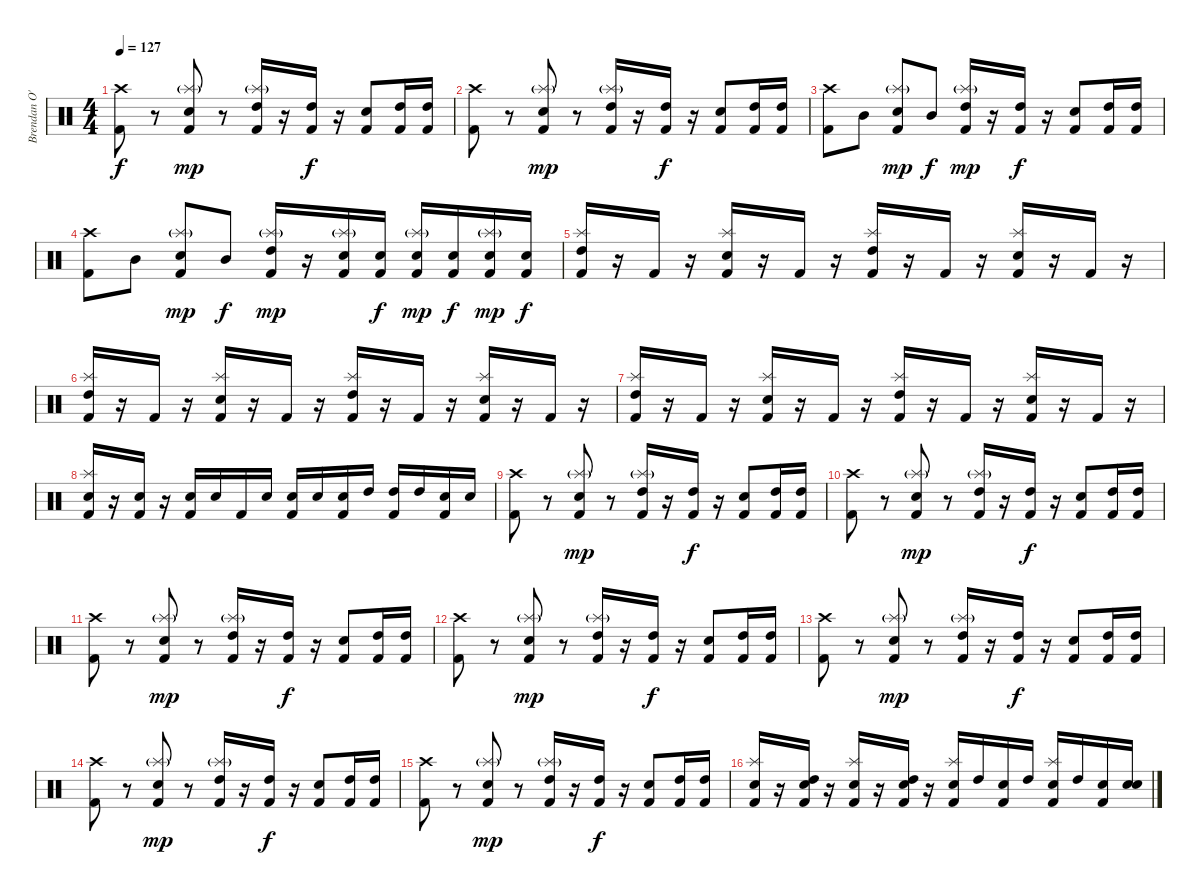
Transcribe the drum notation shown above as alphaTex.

\track ("Brendan O'Neil" "Brendan O'") {instrument percussion}
\staff {score}
\articulation defaults
\ts (4 4)
\tempo 127
\clef neutral
\ks c
("Crash high (hit)" "Kick (hit) 2").8{dy f} r.8 ("Splash (hit)"{g} "Snare (hit) 2" "Kick (hit) 2").8{dy mp} r.8 ("Splash (hit)"{g} "High Tom (hit)" "Kick (hit) 2").16 r.16 ("High Tom (hit)" "Kick (hit) 2").16{dy f} r.16 ("Snare (hit) 2" "Kick (hit) 2").8 ("High Tom (hit)" "Kick (hit) 2").16 ("High Tom (hit)" "Kick (hit) 2").16 |
("Crash high (hit)" "Kick (hit) 2").8 r.8 ("Splash (hit)"{g} "Snare (hit) 2" "Kick (hit) 2").8{dy mp} r.8 ("Splash (hit)"{g} "High Tom (hit)" "Kick (hit) 2").16 r.16 ("High Tom (hit)" "Kick (hit) 2").16{dy f} r.16 ("Snare (hit) 2" "Kick (hit) 2").8 ("High Tom (hit)" "Kick (hit) 2").16 ("High Tom (hit)" "Kick (hit) 2").16 |
("Crash high (hit)" "Kick (hit) 2").8 "Mid Tom (hit)".8 ("Splash (hit)"{g} "Snare (hit) 2" "Kick (hit) 2").8{dy mp} "Mid Tom (hit)".8{dy f} ("Splash (hit)"{g} "High Tom (hit)" "Kick (hit) 2").16{dy mp} r.16 ("High Tom (hit)" "Kick (hit) 2").16{dy f} r.16 ("Snare (hit) 2" "Kick (hit) 2").8 ("High Tom (hit)" "Kick (hit) 2").16 ("High Tom (hit)" "Kick (hit) 2").16 |
("Crash high (hit)" "Kick (hit) 2").8 "Mid Tom (hit)".8 ("Splash (hit)"{g} "Snare (hit) 2" "Kick (hit) 2").8{dy mp} "Mid Tom (hit)".8{dy f} ("Splash (hit)"{g} "High Tom (hit)" "Kick (hit) 2").16{dy mp} r.16 ("Splash (hit)"{g} "Snare (hit) 2" "Kick (hit) 2").16 ("Snare (hit) 2" "Kick (hit) 2").16{dy f} ("Splash (hit)"{g} "Snare (hit) 2" "Kick (hit) 2").16{dy mp} ("Snare (hit) 2" "Kick (hit) 2").16{dy f} ("Splash (hit)"{g} "Snare (hit) 2" "Kick (hit) 2").16{dy mp} ("Snare (hit) 2" "Kick (hit) 2").16{dy f} |
("Splash (hit)" "High Tom (hit)" "Kick (hit) 2").16 r.16 "Kick (hit) 2".16 r.16 ("Splash (hit)" "Snare (hit) 2" "Kick (hit) 2").16 r.16 "Kick (hit) 2".16 r.16 ("Splash (hit)" "High Tom (hit)" "Kick (hit) 2").16 r.16 "Kick (hit) 2".16 r.16 ("Splash (hit)" "Snare (hit) 2" "Kick (hit) 2").16 r.16 "Kick (hit) 2".16 r.16 |
("Splash (hit)" "High Tom (hit)" "Kick (hit) 2").16 r.16 "Kick (hit) 2".16 r.16 ("Splash (hit)" "Snare (hit) 2" "Kick (hit) 2").16 r.16 "Kick (hit) 2".16 r.16 ("Splash (hit)" "High Tom (hit)" "Kick (hit) 2").16 r.16 "Kick (hit) 2".16 r.16 ("Splash (hit)" "Snare (hit) 2" "Kick (hit) 2").16 r.16 "Kick (hit) 2".16 r.16 |
("Splash (hit)" "High Tom (hit)" "Kick (hit) 2").16 r.16 "Kick (hit) 2".16 r.16 ("Splash (hit)" "Snare (hit) 2" "Kick (hit) 2").16 r.16 "Kick (hit) 2".16 r.16 ("Splash (hit)" "High Tom (hit)" "Kick (hit) 2").16 r.16 "Kick (hit) 2".16 r.16 ("Splash (hit)" "Snare (hit) 2" "Kick (hit) 2").16 r.16 "Kick (hit) 2".16 r.16 |
("Splash (hit)" "Snare (hit) 2" "Kick (hit) 2").16 r.16 ("Snare (hit) 2" "Kick (hit) 2").16 r.16 ("Snare (hit) 2" "Kick (hit) 2").16 "Snare (hit) 2".16 "Kick (hit) 2".16 "Snare (hit) 2".16 ("Snare (hit) 2" "Kick (hit) 2").16 "Snare (hit) 2".16 ("Snare (hit) 2" "Kick (hit) 2").16 "High Tom (hit)".16 ("High Tom (hit)" "Kick (hit) 2").16 "High Tom (hit)".16 ("Snare (hit) 2" "Kick (hit) 2").16 "Snare (hit) 2".16 |
("Crash high (hit)" "Kick (hit) 2").8 r.8 ("Splash (hit)"{g} "Snare (hit) 2" "Kick (hit) 2").8{dy mp} r.8 ("Splash (hit)"{g} "High Tom (hit)" "Kick (hit) 2").16 r.16 ("High Tom (hit)" "Kick (hit) 2").16{dy f} r.16 ("Snare (hit) 2" "Kick (hit) 2").8 ("High Tom (hit)" "Kick (hit) 2").16 ("High Tom (hit)" "Kick (hit) 2").16 |
("Crash high (hit)" "Kick (hit) 2").8 r.8 ("Splash (hit)"{g} "Snare (hit) 2" "Kick (hit) 2").8{dy mp} r.8 ("Splash (hit)"{g} "High Tom (hit)" "Kick (hit) 2").16 r.16 ("High Tom (hit)" "Kick (hit) 2").16{dy f} r.16 ("Snare (hit) 2" "Kick (hit) 2").8 ("High Tom (hit)" "Kick (hit) 2").16 ("High Tom (hit)" "Kick (hit) 2").16 |
("Crash high (hit)" "Kick (hit) 2").8 r.8 ("Splash (hit)"{g} "Snare (hit) 2" "Kick (hit) 2").8{dy mp} r.8 ("Splash (hit)"{g} "High Tom (hit)" "Kick (hit) 2").16 r.16 ("High Tom (hit)" "Kick (hit) 2").16{dy f} r.16 ("Snare (hit) 2" "Kick (hit) 2").8 ("High Tom (hit)" "Kick (hit) 2").16 ("High Tom (hit)" "Kick (hit) 2").16 |
("Crash high (hit)" "Kick (hit) 2").8 r.8 ("Splash (hit)"{g} "Snare (hit) 2" "Kick (hit) 2").8{dy mp} r.8 ("Splash (hit)"{g} "High Tom (hit)" "Kick (hit) 2").16 r.16 ("High Tom (hit)" "Kick (hit) 2").16{dy f} r.16 ("Snare (hit) 2" "Kick (hit) 2").8 ("High Tom (hit)" "Kick (hit) 2").16 ("High Tom (hit)" "Kick (hit) 2").16 |
("Crash high (hit)" "Kick (hit) 2").8 r.8 ("Splash (hit)"{g} "Snare (hit) 2" "Kick (hit) 2").8{dy mp} r.8 ("Splash (hit)"{g} "High Tom (hit)" "Kick (hit) 2").16 r.16 ("High Tom (hit)" "Kick (hit) 2").16{dy f} r.16 ("Snare (hit) 2" "Kick (hit) 2").8 ("High Tom (hit)" "Kick (hit) 2").16 ("High Tom (hit)" "Kick (hit) 2").16 |
("Crash high (hit)" "Kick (hit) 2").8 r.8 ("Splash (hit)"{g} "Snare (hit) 2" "Kick (hit) 2").8{dy mp} r.8 ("Splash (hit)"{g} "High Tom (hit)" "Kick (hit) 2").16 r.16 ("High Tom (hit)" "Kick (hit) 2").16{dy f} r.16 ("Snare (hit) 2" "Kick (hit) 2").8 ("High Tom (hit)" "Kick (hit) 2").16 ("High Tom (hit)" "Kick (hit) 2").16 |
("Crash high (hit)" "Kick (hit) 2").8 r.8 ("Splash (hit)"{g} "Snare (hit) 2" "Kick (hit) 2").8{dy mp} r.8 ("Splash (hit)"{g} "High Tom (hit)" "Kick (hit) 2").16 r.16 ("High Tom (hit)" "Kick (hit) 2").16{dy f} r.16 ("Snare (hit) 2" "Kick (hit) 2").8 ("High Tom (hit)" "Kick (hit) 2").16 ("High Tom (hit)" "Kick (hit) 2").16 |
("Splash (hit)" "Kick (hit) 2" "Snare (hit) 2").16 r.16 ("Kick (hit) 2" "Snare (hit) 2" "High Tom (hit)").16 r.16 ("Splash (hit)" "Kick (hit) 2" "Snare (hit) 2").16 r.16 ("Kick (hit) 2" "Snare (hit) 2" "High Tom (hit)").16 r.16 ("Splash (hit)" "Kick (hit) 2" "Snare (hit) 2").16 "High Tom (hit)".16 ("Kick (hit) 2" "Snare (hit) 2").16 "High Tom (hit)".16 ("Splash (hit)" "Kick (hit) 2" "Snare (hit) 2").16 "High Tom (hit)".16 ("Kick (hit) 2" "Snare (hit) 2").16 ("Electric Snare (hit)" "Snare (hit) 2").16
